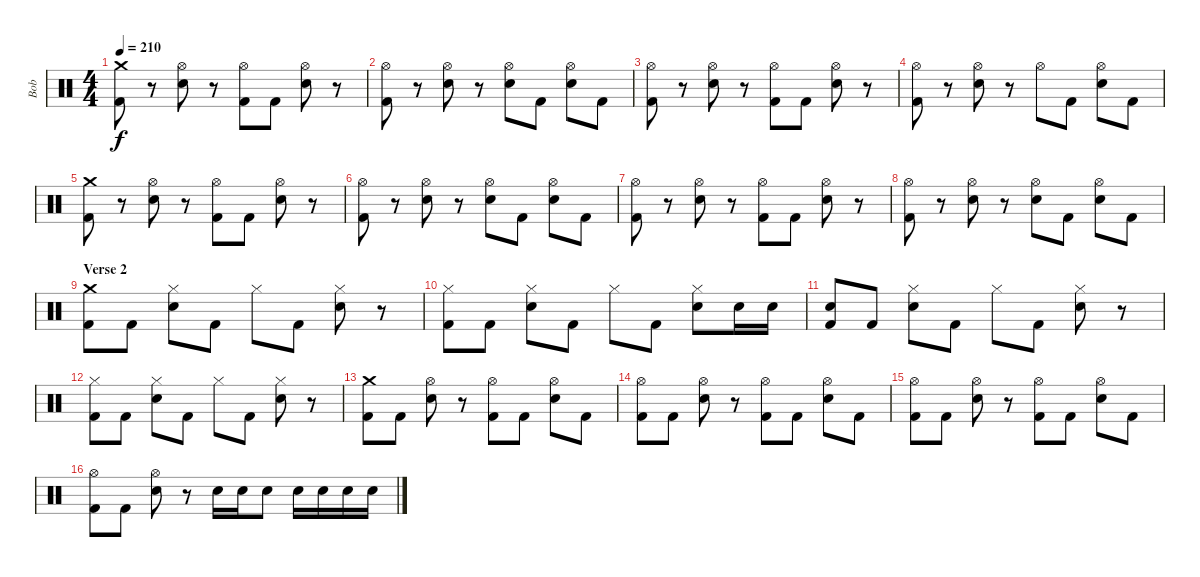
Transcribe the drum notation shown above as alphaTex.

\track ("Bob" "Bob") {instrument percussion}
\staff {score}
\articulation defaults
\ts (4 4)
\tempo 210
\clef neutral
\ks c
("Crash medium (hit)" "Kick (hit) 2").8{dy f} r.8 ("Hi-Hat (open)" "Electric Snare (hit)").8 r.8 ("Hi-Hat (open)" "Kick (hit) 2").8 "Kick (hit) 2".8 ("Hi-Hat (open)" "Electric Snare (hit)").8 r.8 |
("Hi-Hat (open)" "Kick (hit) 2").8 r.8 ("Hi-Hat (open)" "Electric Snare (hit)").8 r.8 ("Hi-Hat (open)" "Electric Snare (hit)").8 "Kick (hit) 2".8 ("Hi-Hat (open)" "Electric Snare (hit)").8 "Kick (hit) 2".8 |
("Hi-Hat (open)" "Kick (hit) 2").8 r.8 ("Hi-Hat (open)" "Electric Snare (hit)").8 r.8 ("Hi-Hat (open)" "Kick (hit) 2").8 "Kick (hit) 2".8 ("Hi-Hat (open)" "Electric Snare (hit)").8 r.8 |
("Hi-Hat (open)" "Kick (hit) 2").8 r.8 ("Hi-Hat (open)" "Electric Snare (hit)").8 r.8 "Hi-Hat (open)".8 "Kick (hit) 2".8 ("Hi-Hat (open)" "Electric Snare (hit)").8 "Kick (hit) 2".8 |
("Crash medium (hit)" "Kick (hit) 2").8 r.8 ("Hi-Hat (open)" "Electric Snare (hit)").8 r.8 ("Hi-Hat (open)" "Kick (hit) 2").8 "Kick (hit) 2".8 ("Hi-Hat (open)" "Electric Snare (hit)").8 r.8 |
("Hi-Hat (open)" "Kick (hit) 2").8 r.8 ("Hi-Hat (open)" "Electric Snare (hit)").8 r.8 ("Hi-Hat (open)" "Electric Snare (hit)").8 "Kick (hit) 2".8 ("Hi-Hat (open)" "Electric Snare (hit)").8 "Kick (hit) 2".8 |
("Hi-Hat (open)" "Kick (hit) 2").8 r.8 ("Hi-Hat (open)" "Electric Snare (hit)").8 r.8 ("Hi-Hat (open)" "Kick (hit) 2").8 "Kick (hit) 2".8 ("Hi-Hat (open)" "Electric Snare (hit)").8 r.8 |
("Hi-Hat (open)" "Kick (hit) 2").8 r.8 ("Hi-Hat (open)" "Electric Snare (hit)").8 r.8 ("Hi-Hat (open)" "Electric Snare (hit)").8 "Kick (hit) 2".8 ("Hi-Hat (open)" "Electric Snare (hit)").8 "Kick (hit) 2".8 |
\section ("" "Verse 2")
("Crash medium (hit)" "Kick (hit) 2").8 "Kick (hit) 2".8 ("Hi-Hat (closed)" "Electric Snare (hit)").8 "Kick (hit) 2".8 "Hi-Hat (closed)".8 "Kick (hit) 2".8 ("Hi-Hat (closed)" "Electric Snare (hit)").8 r.8 |
("Hi-Hat (closed)" "Kick (hit) 2").8 "Kick (hit) 2".8 ("Hi-Hat (closed)" "Electric Snare (hit)").8 "Kick (hit) 2".8 "Hi-Hat (closed)".8 "Kick (hit) 2".8 ("Hi-Hat (closed)" "Electric Snare (hit)").8 "Electric Snare (hit)".16 "Electric Snare (hit)".16 |
("Electric Snare (hit)" "Kick (hit) 2").8 "Kick (hit) 2".8 ("Hi-Hat (closed)" "Electric Snare (hit)").8 "Kick (hit) 2".8 "Hi-Hat (closed)".8 "Kick (hit) 2".8 ("Hi-Hat (closed)" "Electric Snare (hit)").8 r.8 |
("Hi-Hat (closed)" "Kick (hit) 2").8 "Kick (hit) 2".8 ("Hi-Hat (closed)" "Electric Snare (hit)").8 "Kick (hit) 2".8 "Hi-Hat (closed)".8 "Kick (hit) 2".8 ("Hi-Hat (closed)" "Electric Snare (hit)").8 r.8 |
("Crash medium (hit)" "Kick (hit) 2").8 "Kick (hit) 2".8 ("Hi-Hat (open)" "Electric Snare (hit)").8 r.8 ("Hi-Hat (open)" "Kick (hit) 2").8 "Kick (hit) 2".8 ("Hi-Hat (open)" "Electric Snare (hit)").8 "Kick (hit) 2".8 |
("Hi-Hat (open)" "Kick (hit) 2").8 "Kick (hit) 2".8 ("Hi-Hat (open)" "Electric Snare (hit)").8 r.8 ("Hi-Hat (open)" "Kick (hit) 2").8 "Kick (hit) 2".8 ("Hi-Hat (open)" "Electric Snare (hit)").8 "Kick (hit) 2".8 |
("Hi-Hat (open)" "Kick (hit) 2").8 "Kick (hit) 2".8 ("Hi-Hat (open)" "Electric Snare (hit)").8 r.8 ("Hi-Hat (open)" "Kick (hit) 2").8 "Kick (hit) 2".8 ("Hi-Hat (open)" "Electric Snare (hit)").8 "Kick (hit) 2".8 |
("Hi-Hat (open)" "Kick (hit) 2").8 "Kick (hit) 2".8 ("Hi-Hat (open)" "Electric Snare (hit)").8 r.8 "Electric Snare (hit)".16 "Electric Snare (hit)".16 "Electric Snare (hit)".8 "Electric Snare (hit)".16 "Electric Snare (hit)".16 "Electric Snare (hit)".16 "Electric Snare (hit)".16
